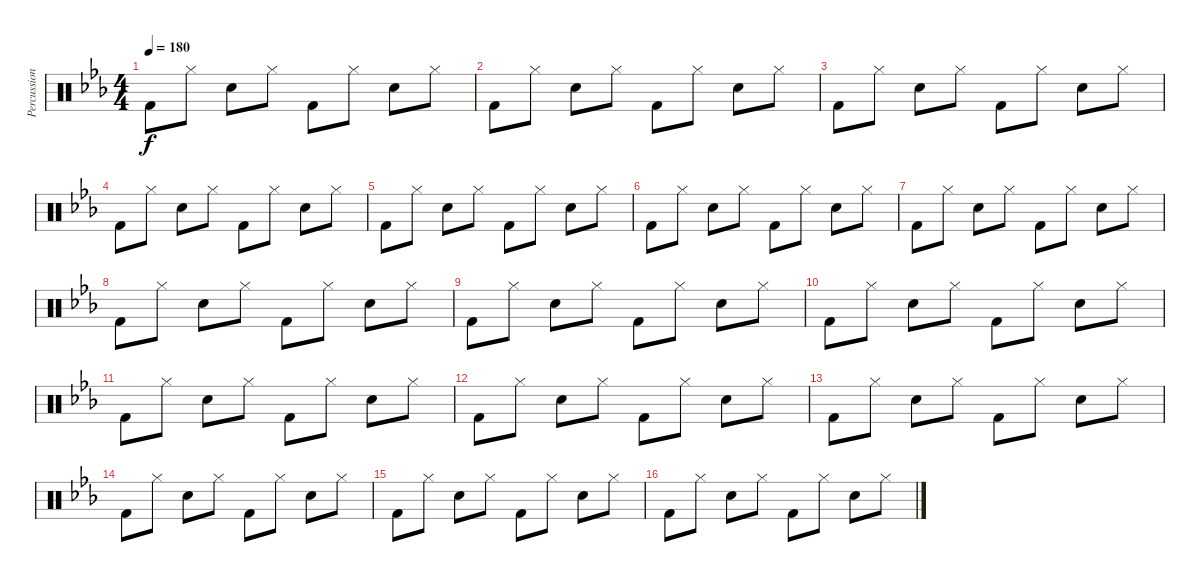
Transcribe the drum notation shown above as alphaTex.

\track ("Percussion" "Percussion") {instrument percussion}
\staff {score}
\articulation defaults
\ts (4 4)
\tempo 180
\clef neutral
\ks cminor "Kick (hit) 2".8{dy f} "Hi-Hat (closed)".8 "Snare (hit) 2".8 "Hi-Hat (closed)".8 "Kick (hit) 2".8 "Hi-Hat (closed)".8 "Snare (hit) 2".8 "Hi-Hat (closed)".8
|
"Kick (hit) 2".8 "Hi-Hat (closed)".8 "Snare (hit) 2".8 "Hi-Hat (closed)".8 "Kick (hit) 2".8 "Hi-Hat (closed)".8 "Snare (hit) 2".8 "Hi-Hat (closed)".8 |
"Kick (hit) 2".8 "Hi-Hat (closed)".8 "Snare (hit) 2".8 "Hi-Hat (closed)".8 "Kick (hit) 2".8 "Hi-Hat (closed)".8 "Snare (hit) 2".8 "Hi-Hat (closed)".8 |
"Kick (hit) 2".8 "Hi-Hat (closed)".8 "Snare (hit) 2".8 "Hi-Hat (closed)".8 "Kick (hit) 2".8 "Hi-Hat (closed)".8 "Snare (hit) 2".8 "Hi-Hat (closed)".8 |
"Kick (hit) 2".8 "Hi-Hat (closed)".8 "Snare (hit) 2".8 "Hi-Hat (closed)".8 "Kick (hit) 2".8 "Hi-Hat (closed)".8 "Snare (hit) 2".8 "Hi-Hat (closed)".8 |
"Kick (hit) 2".8 "Hi-Hat (closed)".8 "Snare (hit) 2".8 "Hi-Hat (closed)".8 "Kick (hit) 2".8 "Hi-Hat (closed)".8 "Snare (hit) 2".8 "Hi-Hat (closed)".8 |
"Kick (hit) 2".8 "Hi-Hat (closed)".8 "Snare (hit) 2".8 "Hi-Hat (closed)".8 "Kick (hit) 2".8 "Hi-Hat (closed)".8 "Snare (hit) 2".8 "Hi-Hat (closed)".8 |
"Kick (hit) 2".8 "Hi-Hat (closed)".8 "Snare (hit) 2".8 "Hi-Hat (closed)".8 "Kick (hit) 2".8 "Hi-Hat (closed)".8 "Snare (hit) 2".8 "Hi-Hat (closed)".8 |
"Kick (hit) 2".8 "Hi-Hat (closed)".8 "Snare (hit) 2".8 "Hi-Hat (closed)".8 "Kick (hit) 2".8 "Hi-Hat (closed)".8 "Snare (hit) 2".8 "Hi-Hat (closed)".8 |
"Kick (hit) 2".8 "Hi-Hat (closed)".8 "Snare (hit) 2".8 "Hi-Hat (closed)".8 "Kick (hit) 2".8 "Hi-Hat (closed)".8 "Snare (hit) 2".8 "Hi-Hat (closed)".8 |
"Kick (hit) 2".8 "Hi-Hat (closed)".8 "Snare (hit) 2".8 "Hi-Hat (closed)".8 "Kick (hit) 2".8 "Hi-Hat (closed)".8 "Snare (hit) 2".8 "Hi-Hat (closed)".8 |
"Kick (hit) 2".8 "Hi-Hat (closed)".8 "Snare (hit) 2".8 "Hi-Hat (closed)".8 "Kick (hit) 2".8 "Hi-Hat (closed)".8 "Snare (hit) 2".8 "Hi-Hat (closed)".8 |
"Kick (hit) 2".8 "Hi-Hat (closed)".8 "Snare (hit) 2".8 "Hi-Hat (closed)".8 "Kick (hit) 2".8 "Hi-Hat (closed)".8 "Snare (hit) 2".8 "Hi-Hat (closed)".8 |
"Kick (hit) 2".8 "Hi-Hat (closed)".8 "Snare (hit) 2".8 "Hi-Hat (closed)".8 "Kick (hit) 2".8 "Hi-Hat (closed)".8 "Snare (hit) 2".8 "Hi-Hat (closed)".8 |
"Kick (hit) 2".8 "Hi-Hat (closed)".8 "Snare (hit) 2".8 "Hi-Hat (closed)".8 "Kick (hit) 2".8 "Hi-Hat (closed)".8 "Snare (hit) 2".8 "Hi-Hat (closed)".8 |
"Kick (hit) 2".8 "Hi-Hat (closed)".8 "Snare (hit) 2".8 "Hi-Hat (closed)".8 "Kick (hit) 2".8 "Hi-Hat (closed)".8 "Snare (hit) 2".8 "Hi-Hat (closed)".8
